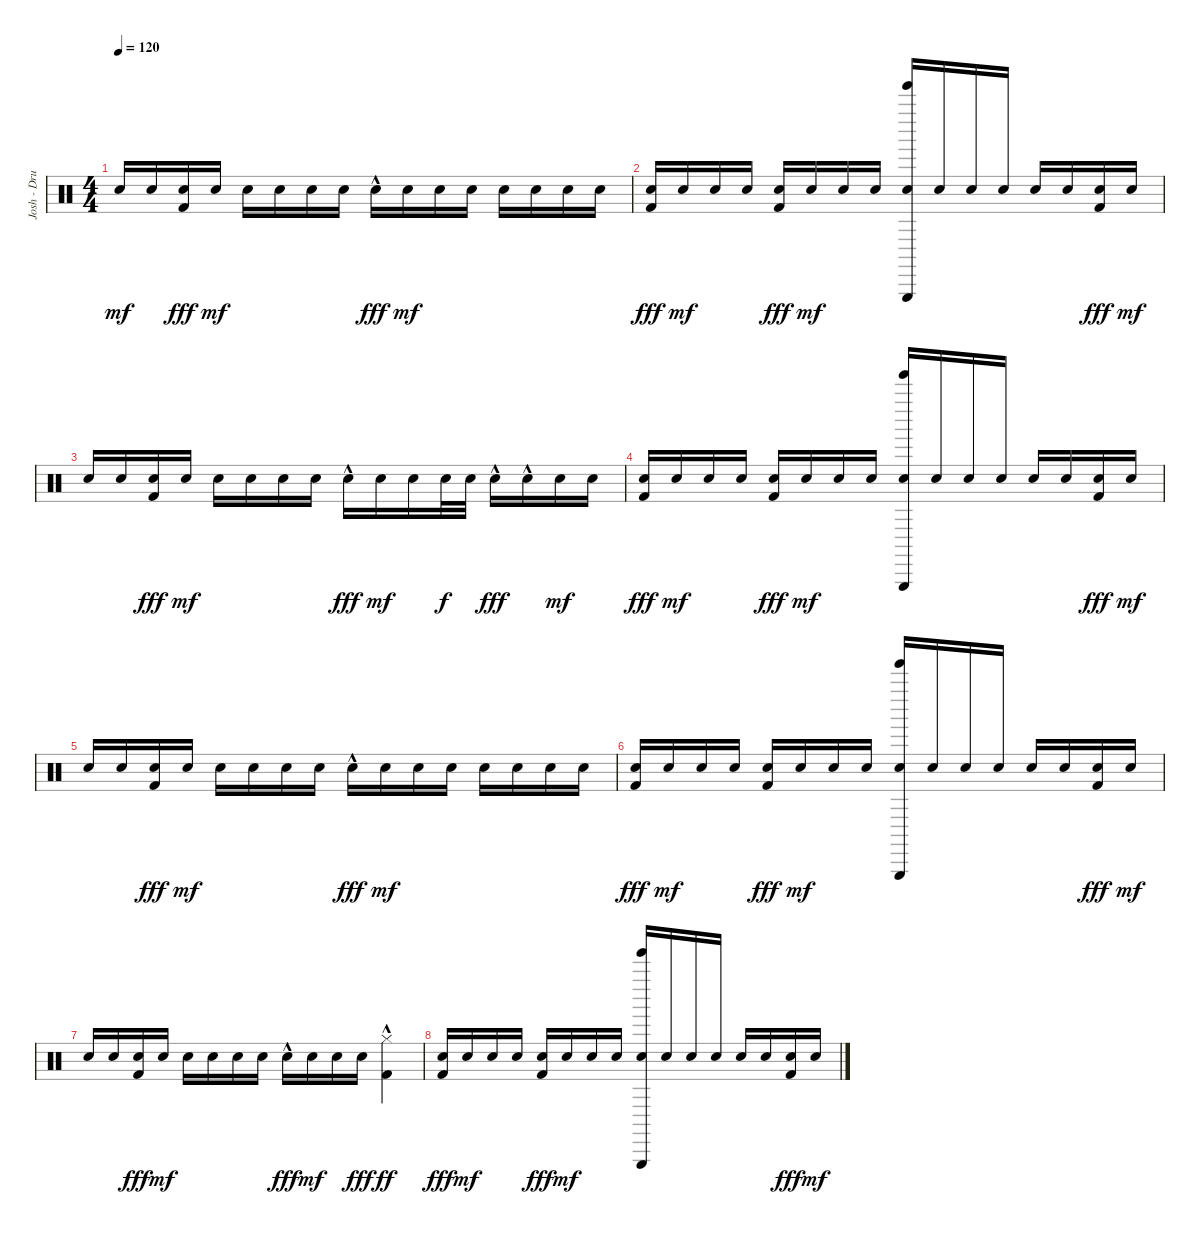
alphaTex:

\track ("Josh - Drums" "Josh - Dru") {instrument percussion}
\staff {score}
\articulation defaults
\ts (4 4)
\tempo 120
\clef neutral
\ks c "Electric Snare (hit)".16{dy mf} "Electric Snare (hit)".16
("Electric Snare (hit)" "Kick (hit) 2").16{dy fff} "Electric Snare (hit)".16{dy mf} "Electric Snare (hit)".16 "Electric Snare (hit)".16 "Electric Snare (hit)".16 "Electric Snare (hit)".16 "Snare (hit) 2"{hac}.16{dy fff} "Electric Snare (hit)".16{dy mf} "Electric Snare (hit)".16 "Electric Snare (hit)".16 "Electric Snare (hit)".16 "Electric Snare (hit)".16 "Electric Snare (hit)".16 "Electric Snare (hit)".16 |
("Electric Snare (hit)" "Kick (hit) 2").16{dy fff} "Electric Snare (hit)".16{dy mf} "Electric Snare (hit)".16 "Electric Snare (hit)".16 ("Electric Snare (hit)" "Kick (hit) 2").16{dy fff} "Electric Snare (hit)".16{dy mf} "Electric Snare (hit)".16 "Electric Snare (hit)".16 ("Electric Snare (hit)" "Tinkle Bell (hit)" "Triangle (hit)").16 "Electric Snare (hit)".16 "Electric Snare (hit)".16 "Electric Snare (hit)".16 "Electric Snare (hit)".16 "Electric Snare (hit)".16 ("Electric Snare (hit)" "Kick (hit) 2").16{dy fff} "Electric Snare (hit)".16{dy mf} |
"Electric Snare (hit)".16 "Electric Snare (hit)".16 ("Electric Snare (hit)" "Kick (hit) 2").16{dy fff} "Electric Snare (hit)".16{dy mf} "Electric Snare (hit)".16 "Electric Snare (hit)".16 "Electric Snare (hit)".16 "Electric Snare (hit)".16 "Snare (hit) 2"{hac}.16{dy fff} "Electric Snare (hit)".16{dy mf} "Electric Snare (hit)".16 "Snare (hit) 2".32{dy f} "Snare (hit) 2".32 "Snare (hit) 2"{hac}.16{dy fff} "Snare (hit) 2"{hac}.16 "Electric Snare (hit)".16{dy mf} "Electric Snare (hit)".16 |
("Electric Snare (hit)" "Kick (hit) 2").16{dy fff} "Electric Snare (hit)".16{dy mf} "Electric Snare (hit)".16 "Electric Snare (hit)".16 ("Electric Snare (hit)" "Kick (hit) 2").16{dy fff} "Electric Snare (hit)".16{dy mf} "Electric Snare (hit)".16 "Electric Snare (hit)".16 ("Electric Snare (hit)" "Tinkle Bell (hit)" "Triangle (hit)").16 "Electric Snare (hit)".16 "Electric Snare (hit)".16 "Electric Snare (hit)".16 "Electric Snare (hit)".16 "Electric Snare (hit)".16 ("Electric Snare (hit)" "Kick (hit) 2").16{dy fff} "Electric Snare (hit)".16{dy mf} |
"Electric Snare (hit)".16 "Electric Snare (hit)".16 ("Electric Snare (hit)" "Kick (hit) 2").16{dy fff} "Electric Snare (hit)".16{dy mf} "Electric Snare (hit)".16 "Electric Snare (hit)".16 "Electric Snare (hit)".16 "Electric Snare (hit)".16 "Snare (hit) 2"{hac}.16{dy fff} "Electric Snare (hit)".16{dy mf} "Electric Snare (hit)".16 "Electric Snare (hit)".16 "Electric Snare (hit)".16 "Electric Snare (hit)".16 "Electric Snare (hit)".16 "Electric Snare (hit)".16 |
("Electric Snare (hit)" "Kick (hit) 2").16{dy fff} "Electric Snare (hit)".16{dy mf} "Electric Snare (hit)".16 "Electric Snare (hit)".16 ("Electric Snare (hit)" "Kick (hit) 2").16{dy fff} "Electric Snare (hit)".16{dy mf} "Electric Snare (hit)".16 "Electric Snare (hit)".16 ("Electric Snare (hit)" "Tinkle Bell (hit)" "Triangle (hit)").16 "Electric Snare (hit)".16 "Electric Snare (hit)".16 "Electric Snare (hit)".16 "Electric Snare (hit)".16 "Electric Snare (hit)".16 ("Electric Snare (hit)" "Kick (hit) 2").16{dy fff} "Electric Snare (hit)".16{dy mf} |
"Electric Snare (hit)".16 "Electric Snare (hit)".16 ("Electric Snare (hit)" "Kick (hit) 2").16{dy fff} "Electric Snare (hit)".16{dy mf} "Electric Snare (hit)".16 "Electric Snare (hit)".16 "Electric Snare (hit)".16 "Electric Snare (hit)".16 "Snare (hit) 2"{hac}.16{dy fff} "Electric Snare (hit)".16{dy mf} "Electric Snare (hit)".16 "Electric Snare (hit)".16{dy fff} ("Hi-Hat (closed)" "Kick (hit) 2"{hac}).4{dy ff} |
("Electric Snare (hit)" "Kick (hit) 2").16{dy fff} "Electric Snare (hit)".16{dy mf} "Electric Snare (hit)".16 "Electric Snare (hit)".16 ("Electric Snare (hit)" "Kick (hit) 2").16{dy fff} "Electric Snare (hit)".16{dy mf} "Electric Snare (hit)".16 "Electric Snare (hit)".16 ("Electric Snare (hit)" "Tinkle Bell (hit)" "Triangle (hit)").16 "Electric Snare (hit)".16 "Electric Snare (hit)".16 "Electric Snare (hit)".16 "Electric Snare (hit)".16 "Electric Snare (hit)".16 ("Electric Snare (hit)" "Kick (hit) 2").16{dy fff} "Electric Snare (hit)".16{dy mf}
